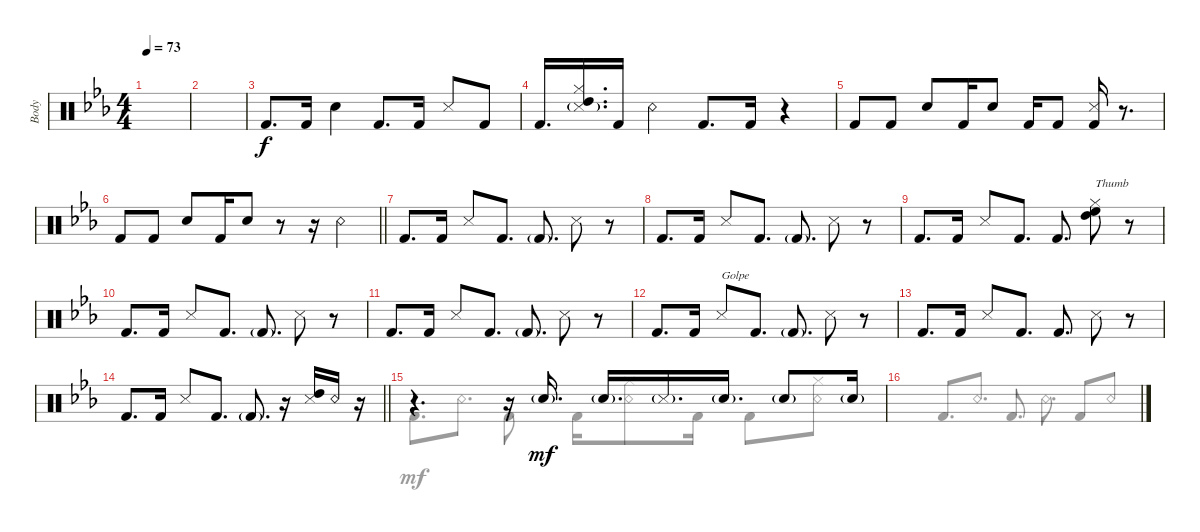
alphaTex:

\defaultSystemsLayout 2
\bracketExtendMode groupsimilarinstruments
\otherSystemsTrackNameOrientation horizontal
\track ("Drumkit" "Body ") {instrument percussion}
\staff {score}
\articulation defaults
\voice
\ts (4 4)
\scale
1.07294
\tempo 73
\accidentals auto
\clef neutral
\ottava regular
\simile none
\ks cminor
|
\scale
0.927059 |
\scale
1.06459 "Kick (hit) 2"{acc forcenatural}.8{d beam Up} "Kick (hit) 2"{acc forcenatural}.16{beam Up} "Snare (hit) 2"{acc forcenatural}.4{beam Down} "Kick (hit) 2"{acc forcenatural}.8{d beam Up} "Kick (hit) 2"{acc forcenatural}.16{beam Up} "Snare (side stick) 3"{acc forcenatural}.8{beam Up} "Kick (hit) 2"{acc forcenatural}.8{beam Up} |
\scale
0.935414 "Kick (hit) 2"{acc forcenatural}.16{d beam Up} ("High Tom (hit)"{acc forcenatural} "Hi-Hat (closed)"{acc forcenatural} "Snare (side stick) 3"{g acc forcenatural}).16{d beam Up} "Kick (hit) 2"{acc forcenatural}.16{beam Up} "Snare (rim shot)"{acc forcenatural}.4{beam Down} "Kick (hit) 2"{acc forcenatural}.8{d beam Up} "Kick (hit) 2"{acc forcenatural}.16{beam Up} r.4{beam Up} |
\scale
1.05991 "Kick (hit) 2"{acc forcenatural}.8{beam Up} "Kick (hit) 2"{acc forcenatural}.8{beam Up} "Snare (hit) 2"{acc forcenatural}.8{beam Up} "Kick (hit) 2"{acc forcenatural}.16{beam Up} "Snare (hit) 2"{acc forcenatural}.8{beam Up} "Kick (hit) 2"{acc forcenatural}.16{beam Up} "Kick (hit) 2"{acc forcenatural}.8{beam Up} ("Kick (hit) 2"{acc forcenatural} "Snare (side stick) 3"{acc forcenatural}).16{beam Up} r.8{d beam Up} |
\scale
0.940093
\barLineRight lightlight "Kick (hit) 2"{acc forcenatural}.8{beam Up} "Kick (hit) 2"{acc forcenatural}.8{beam Up} "Snare (hit) 2"{acc forcenatural}.8{beam Up} "Kick (hit) 2"{acc forcenatural}.16{beam Up} "Snare (hit) 2"{acc forcenatural}.8{beam Up}
r.8{beam Up} r.16{beam Up} "Snare (rim shot)"{acc forcenatural}.4{beam Down} |
\scale
1.06459 "Kick (hit) 2"{acc forcenatural}.8{d beam Up} "Kick (hit) 2"{acc forcenatural}.16{beam Up} "Snare (side stick) 3"{acc forcenatural}.8{beam Up} "Kick (hit) 2"{acc forcenatural}.8{d beam Up} "Kick (hit) 2"{g acc forcenatural}.8{d beam Up} "Snare (side stick) 3"{acc forcenatural}.8{beam Down} r.8{beam Down} |
\scale
0.935414 "Kick (hit) 2"{acc forcenatural}.8{d beam Up} "Kick (hit) 2"{acc forcenatural}.16{beam Up} "Snare (side stick) 3"{acc forcenatural}.8{beam Up} "Kick (hit) 2"{acc forcenatural}.8{d beam Up} "Kick (hit) 2"{g acc forcenatural}.8{d beam Up} "Snare (side stick) 3"{acc forcenatural}.8{beam Down} r.8{beam Down} |
\scale
1.06459 "Kick (hit) 2"{acc forcenatural}.8{d beam Up} "Kick (hit) 2"{acc forcenatural}.16{beam Up} "Snare (side stick) 3"{acc forcenatural}.8{beam Up} "Kick (hit) 2"{acc forcenatural}.8{d beam Up} "Kick (hit) 2"{acc forcenatural}.8{d beam Up} ("High Tom (hit)"{acc forcenatural} "High Floor Tom (hit)"{acc forcenatural} "Hi-Hat (closed)"{acc forcenatural}).8{txt "Thumb" beam Down} r.8{beam Down} |
\scale
0.935414 "Kick (hit) 2"{acc forcenatural}.8{d beam Up} "Kick (hit) 2"{acc forcenatural}.16{beam Up} "Snare (side stick) 3"{acc forcenatural}.8{beam Up} "Kick (hit) 2"{acc forcenatural}.8{d beam Up} "Kick (hit) 2"{g acc forcenatural}.8{d beam Up} "Snare (side stick) 3"{acc forcenatural}.8{beam Down} r.8{beam Down} |
\scale
1.06459 "Kick (hit) 2"{acc forcenatural}.8{d beam Up} "Kick (hit) 2"{acc forcenatural}.16{beam Up} "Snare (side stick) 3"{acc forcenatural}.8{beam Up} "Kick (hit) 2"{acc forcenatural}.8{d beam Up} "Kick (hit) 2"{g acc forcenatural}.8{d beam Up} "Snare (side stick) 3"{acc forcenatural}.8{beam Down} r.8{beam Down} |
\scale
0.935414 "Kick (hit) 2"{acc forcenatural}.8{d beam Up} "Kick (hit) 2"{acc forcenatural}.16{beam Up} "Snare (side stick) 3"{acc forcenatural}.8{txt "Golpe" beam Up} "Kick (hit) 2"{acc forcenatural}.8{d beam Up} "Kick (hit) 2"{g acc forcenatural}.8{d beam Up} "Snare (side stick) 3"{acc forcenatural}.8{beam Down} r.8{beam Down} |
\scale
1.05991 "Kick (hit) 2"{acc forcenatural}.8{d beam Up} "Kick (hit) 2"{acc forcenatural}.16{beam Up} "Snare (side stick) 3"{acc forcenatural}.8{beam Up} "Kick (hit) 2"{acc forcenatural}.8{d beam Up} "Kick (hit) 2"{acc forcenatural}.8{d beam Up} "Snare (side stick) 3"{acc forcenatural}.8{beam Down} r.8{beam Down} |
\scale
0.940093
\barLineRight lightlight "Kick (hit) 2"{acc forcenatural}.8{d beam Up} "Kick (hit) 2"{acc forcenatural}.16{beam Up} "Snare (side stick) 3"{acc forcenatural}.8{beam Up} "Kick (hit) 2"{acc forcenatural}.8{d beam Up} "Kick (hit) 2"{g acc forcenatural}.8{d beam Up}
r.16{beam Up} ("High Tom (hit)"{acc forcenatural} "Snare (side stick) 3"{acc forcenatural}).16{beam Down} "Snare (rim shot)"{acc forcenatural}.16{beam Down} r.16{beam Down} |
\scale
1.06459 r.4{d beam Up} r.16{beam Up} "Snare (hit) 2"{g acc forcenatural}.16{d dy mf beam Up} "Snare (hit) 2"{g acc forcenatural}.16{d beam Up} "Snare (side stick) 3"{g acc forcenatural}.16{d beam Up} "Snare (hit) 2"{g acc forcenatural}.16{d beam Up} "Snare (hit) 2"{g acc forcenatural}.8{beam Up} "Snare (hit) 2"{g acc forcenatural}.16{beam Up} |
\scale
0.935414
\voice
\clef neutral
\ottava regular
\simile none
\ks cminor
|
|
|
|
|
\barLineRight lightlight
|
|
|
|
|
|
|
|
\barLineRight lightlight
|
"Kick (hit) 2"{acc forcenatural}.8{d beam Down} "Snare (rim shot)"{acc forcenatural}.8{d beam Down} "Kick (hit) 2"{acc forcenatural}.8{beam Down} "Kick (hit) 2"{acc forcenatural}.16{beam Down} ("Snare (rim shot)"{acc forcenatural} "Hi-Hat (closed)"{acc forcenatural}).8{beam Down} "Kick (hit) 2"{acc forcenatural}.16{beam Down} "Kick (hit) 2"{acc forcenatural}.8{beam Down} ("Snare (rim shot)"{acc forcenatural} "Hi-Hat (closed)"{acc forcenatural}).8{beam Down} |
"Kick (hit) 2"{acc forcenatural}.8{d beam Up} "Snare (rim shot)"{acc forcenatural}.8{d beam Up} "Kick (hit) 2"{acc forcenatural}.8{d beam Up} "Snare (rim shot)"{acc forcenatural}.8{d beam Down} "Kick (hit) 2"{acc forcenatural}.8{beam Up} "Snare (rim shot)"{acc forcenatural}.8{beam Up}
